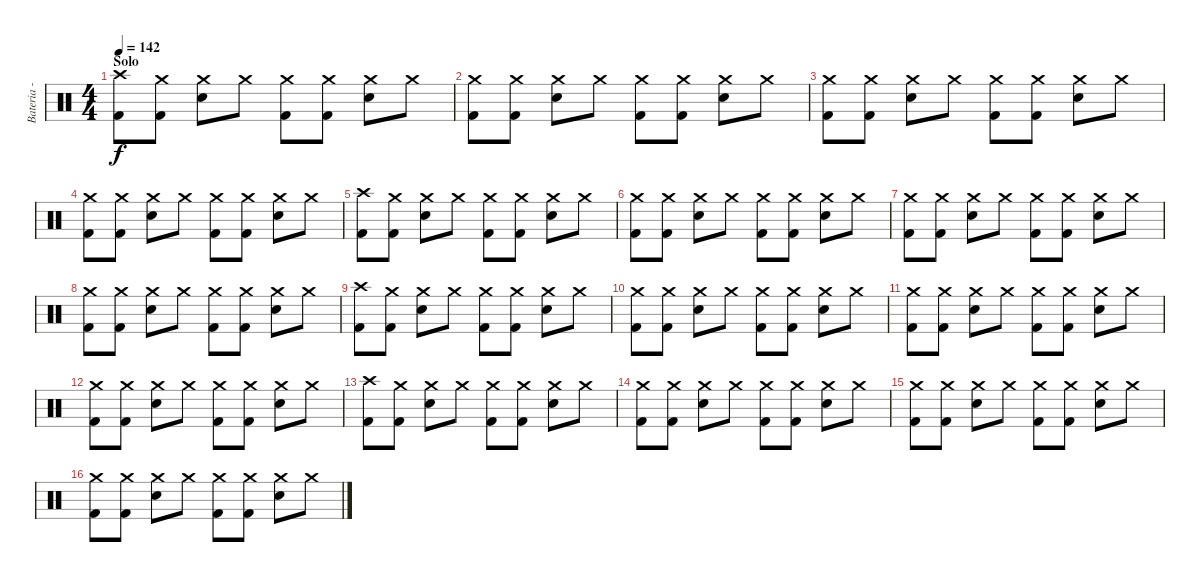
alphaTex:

\track ("Bateria - Larzon" "Bateria - ") {instrument percussion}
\staff {score}
\articulation defaults
\ts (4 4)
\section ("" "Solo")
\tempo 142
\clef neutral
\ks c
("Kick (hit) 2" "Crash high (hit)").8{dy f} ("Kick (hit) 2" "Crash medium (hit)").8 ("Snare (hit) 2" "Crash medium (hit)").8 "Crash medium (hit)".8 ("Kick (hit) 2" "Crash medium (hit)").8 ("Kick (hit) 2" "Crash medium (hit)").8 ("Snare (hit) 2" "Crash medium (hit)").8 "Crash medium (hit)".8 |
("Kick (hit) 2" "Crash medium (hit)").8 ("Kick (hit) 2" "Crash medium (hit)").8 ("Snare (hit) 2" "Crash medium (hit)").8 "Crash medium (hit)".8 ("Kick (hit) 2" "Crash medium (hit)").8 ("Kick (hit) 2" "Crash medium (hit)").8 ("Snare (hit) 2" "Crash medium (hit)").8 "Crash medium (hit)".8 |
("Kick (hit) 2" "Crash medium (hit)").8 ("Kick (hit) 2" "Crash medium (hit)").8 ("Snare (hit) 2" "Crash medium (hit)").8 "Crash medium (hit)".8 ("Kick (hit) 2" "Crash medium (hit)").8 ("Kick (hit) 2" "Crash medium (hit)").8 ("Snare (hit) 2" "Crash medium (hit)").8 "Crash medium (hit)".8 |
("Kick (hit) 2" "Crash medium (hit)").8 ("Kick (hit) 2" "Crash medium (hit)").8 ("Snare (hit) 2" "Crash medium (hit)").8 "Crash medium (hit)".8 ("Kick (hit) 2" "Crash medium (hit)").8 ("Kick (hit) 2" "Crash medium (hit)").8 ("Snare (hit) 2" "Crash medium (hit)").8 "Crash medium (hit)".8 |
("Kick (hit) 2" "Crash high (hit)").8 ("Kick (hit) 2" "Crash medium (hit)").8 ("Snare (hit) 2" "Crash medium (hit)").8 "Crash medium (hit)".8 ("Kick (hit) 2" "Crash medium (hit)").8 ("Kick (hit) 2" "Crash medium (hit)").8 ("Snare (hit) 2" "Crash medium (hit)").8 "Crash medium (hit)".8 |
("Kick (hit) 2" "Crash medium (hit)").8 ("Kick (hit) 2" "Crash medium (hit)").8 ("Snare (hit) 2" "Crash medium (hit)").8 "Crash medium (hit)".8 ("Kick (hit) 2" "Crash medium (hit)").8 ("Kick (hit) 2" "Crash medium (hit)").8 ("Snare (hit) 2" "Crash medium (hit)").8 "Crash medium (hit)".8 |
("Kick (hit) 2" "Crash medium (hit)").8 ("Kick (hit) 2" "Crash medium (hit)").8 ("Snare (hit) 2" "Crash medium (hit)").8 "Crash medium (hit)".8 ("Kick (hit) 2" "Crash medium (hit)").8 ("Kick (hit) 2" "Crash medium (hit)").8 ("Snare (hit) 2" "Crash medium (hit)").8 "Crash medium (hit)".8 |
("Kick (hit) 2" "Crash medium (hit)").8 ("Kick (hit) 2" "Crash medium (hit)").8 ("Snare (hit) 2" "Crash medium (hit)").8 "Crash medium (hit)".8 ("Kick (hit) 2" "Crash medium (hit)").8 ("Kick (hit) 2" "Crash medium (hit)").8 ("Snare (hit) 2" "Crash medium (hit)").8 "Crash medium (hit)".8 |
("Kick (hit) 2" "Crash high (hit)").8 ("Kick (hit) 2" "Crash medium (hit)").8 ("Snare (hit) 2" "Crash medium (hit)").8 "Crash medium (hit)".8 ("Kick (hit) 2" "Crash medium (hit)").8 ("Kick (hit) 2" "Crash medium (hit)").8 ("Snare (hit) 2" "Crash medium (hit)").8 "Crash medium (hit)".8 |
("Kick (hit) 2" "Crash medium (hit)").8 ("Kick (hit) 2" "Crash medium (hit)").8 ("Snare (hit) 2" "Crash medium (hit)").8 "Crash medium (hit)".8 ("Kick (hit) 2" "Crash medium (hit)").8 ("Kick (hit) 2" "Crash medium (hit)").8 ("Snare (hit) 2" "Crash medium (hit)").8 "Crash medium (hit)".8 |
("Kick (hit) 2" "Crash medium (hit)").8 ("Kick (hit) 2" "Crash medium (hit)").8 ("Snare (hit) 2" "Crash medium (hit)").8 "Crash medium (hit)".8 ("Kick (hit) 2" "Crash medium (hit)").8 ("Kick (hit) 2" "Crash medium (hit)").8 ("Snare (hit) 2" "Crash medium (hit)").8 "Crash medium (hit)".8 |
("Kick (hit) 2" "Crash medium (hit)").8{volume 12} ("Kick (hit) 2" "Crash medium (hit)").8 ("Snare (hit) 2" "Crash medium (hit)").8 "Crash medium (hit)".8 ("Kick (hit) 2" "Crash medium (hit)").8 ("Kick (hit) 2" "Crash medium (hit)").8 ("Snare (hit) 2" "Crash medium (hit)").8 "Crash medium (hit)".8 |
("Kick (hit) 2" "Crash high (hit)").8{volume 11} ("Kick (hit) 2" "Crash medium (hit)").8 ("Snare (hit) 2" "Crash medium (hit)").8 "Crash medium (hit)".8 ("Kick (hit) 2" "Crash medium (hit)").8 ("Kick (hit) 2" "Crash medium (hit)").8 ("Snare (hit) 2" "Crash medium (hit)").8 "Crash medium (hit)".8 |
("Kick (hit) 2" "Crash medium (hit)").8 ("Kick (hit) 2" "Crash medium (hit)").8 ("Snare (hit) 2" "Crash medium (hit)").8 "Crash medium (hit)".8 ("Kick (hit) 2" "Crash medium (hit)").8 ("Kick (hit) 2" "Crash medium (hit)").8 ("Snare (hit) 2" "Crash medium (hit)").8 "Crash medium (hit)".8 |
("Kick (hit) 2" "Crash medium (hit)").8{volume 11} ("Kick (hit) 2" "Crash medium (hit)").8 ("Snare (hit) 2" "Crash medium (hit)").8 "Crash medium (hit)".8 ("Kick (hit) 2" "Crash medium (hit)").8 ("Kick (hit) 2" "Crash medium (hit)").8 ("Snare (hit) 2" "Crash medium (hit)").8 "Crash medium (hit)".8 |
("Kick (hit) 2" "Crash medium (hit)").8{volume 10} ("Kick (hit) 2" "Crash medium (hit)").8 ("Snare (hit) 2" "Crash medium (hit)").8 "Crash medium (hit)".8 ("Kick (hit) 2" "Crash medium (hit)").8 ("Kick (hit) 2" "Crash medium (hit)").8 ("Snare (hit) 2" "Crash medium (hit)").8 "Crash medium (hit)".8
